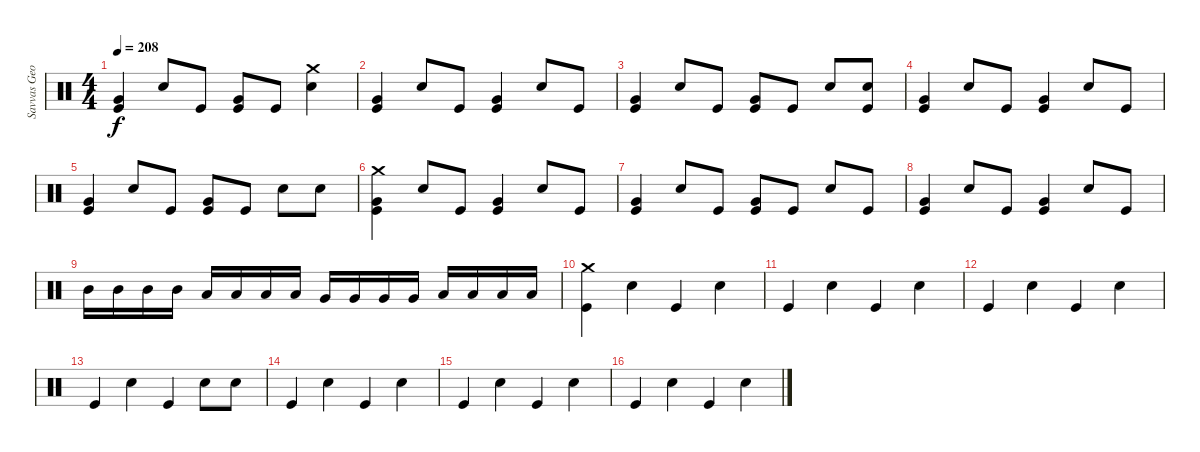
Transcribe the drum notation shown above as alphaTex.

\track ("Savvas Georgiadis" "Savvas Geo") {instrument percussion}
\staff {score}
\articulation defaults
\ts (4 4)
\tempo 208
\clef neutral
\ks c
("Very Low Tom (hit)" "Kick (hit)").4{dy f} "Snare (hit) 2".8 "Kick (hit)".8 ("Very Low Tom (hit)" "Kick (hit)").8 "Kick (hit)".8 ("Crash medium (hit)" "Snare (hit) 2").4 |
("Very Low Tom (hit)" "Kick (hit)").4 "Snare (hit) 2".8 "Kick (hit)".8 ("Very Low Tom (hit)" "Kick (hit)").4 "Snare (hit) 2".8 "Kick (hit)".8 |
("Very Low Tom (hit)" "Kick (hit)").4 "Snare (hit) 2".8 "Kick (hit)".8 ("Very Low Tom (hit)" "Kick (hit)").8 "Kick (hit)".8 "Snare (hit) 2".8 ("Snare (hit) 2" "Kick (hit)").8 |
("Very Low Tom (hit)" "Kick (hit)").4 "Snare (hit) 2".8 "Kick (hit)".8 ("Very Low Tom (hit)" "Kick (hit)").4 "Snare (hit) 2".8 "Kick (hit)".8 |
("Very Low Tom (hit)" "Kick (hit)").4 "Snare (hit) 2".8 "Kick (hit)".8 ("Very Low Tom (hit)" "Kick (hit)").8 "Kick (hit)".8 "Snare (hit) 2".8 "Snare (hit) 2".8 |
("Crash medium (hit)" "Very Low Tom (hit)" "Kick (hit)").4 "Snare (hit) 2".8 "Kick (hit)".8 ("Very Low Tom (hit)" "Kick (hit)").4 "Snare (hit) 2".8 "Kick (hit)".8 |
("Very Low Tom (hit)" "Kick (hit)").4 "Snare (hit) 2".8 "Kick (hit)".8 ("Very Low Tom (hit)" "Kick (hit)").8 "Kick (hit)".8 "Snare (hit) 2".8 "Kick (hit)".8 |
("Very Low Tom (hit)" "Kick (hit)").4 "Snare (hit) 2".8 "Kick (hit)".8 ("Very Low Tom (hit)" "Kick (hit)").4 "Snare (hit) 2".8 "Kick (hit)".8 |
"Mid Tom (hit)".16 "Mid Tom (hit)".16 "Mid Tom (hit)".16 "Mid Tom (hit)".16 "Low Tom (hit)".16 "Low Tom (hit)".16 "Low Tom (hit)".16 "Low Tom (hit)".16 "Very Low Tom (hit)".16 "Very Low Tom (hit)".16 "Very Low Tom (hit)".16 "Very Low Tom (hit)".16 "Low Floor Tom (hit)".16 "Low Floor Tom (hit)".16 "Low Floor Tom (hit)".16 "Low Floor Tom (hit)".16 |
("Crash medium (hit)" "Kick (hit)").4 "Snare (hit) 2".4 "Kick (hit)".4 "Snare (hit) 2".4 |
"Kick (hit)".4 "Snare (hit) 2".4 "Kick (hit)".4 "Snare (hit) 2".4 |
"Kick (hit)".4 "Snare (hit) 2".4 "Kick (hit)".4 "Snare (hit) 2".4 |
"Kick (hit)".4 "Snare (hit) 2".4 "Kick (hit)".4 "Snare (hit) 2".8 "Snare (hit) 2".8 |
"Kick (hit)".4 "Snare (hit) 2".4 "Kick (hit)".4 "Snare (hit) 2".4 |
"Kick (hit)".4 "Snare (hit) 2".4 "Kick (hit)".4 "Snare (hit) 2".4 |
"Kick (hit)".4 "Snare (hit) 2".4 "Kick (hit)".4 "Snare (hit) 2".4
